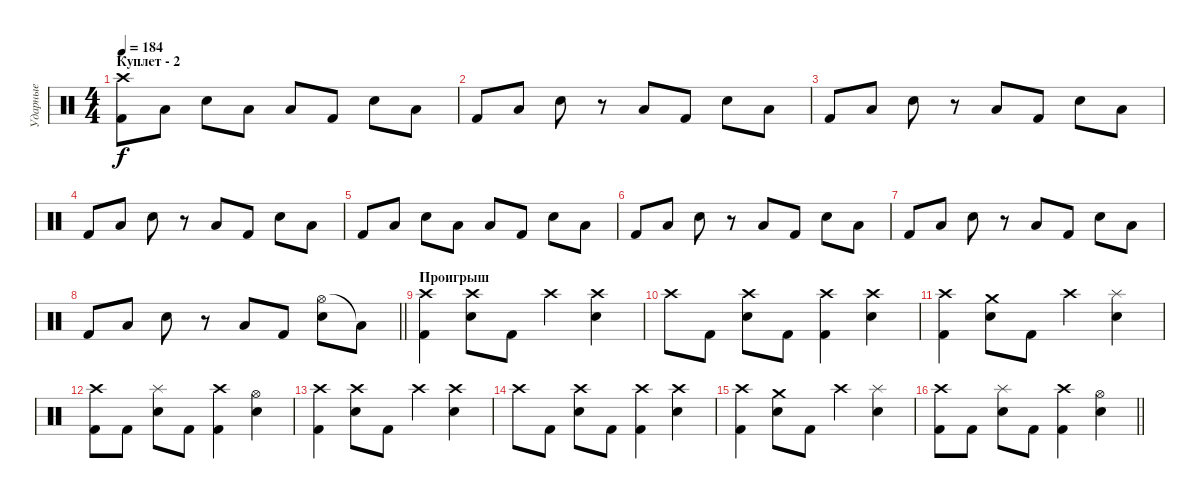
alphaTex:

\track ("Ударные" "Ударные") {instrument percussion}
\staff {score}
\articulation defaults
\ts (4 4)
\section ("" "Куплет - 2")
\tempo 184
\clef neutral
\ks c
("Crash high (hit)" "Kick (hit) 2").8{dy f} "Low Tom (hit)".8 "Snare (hit) 2".8 "Low Floor Tom (hit)".8 "Low Tom (hit)".8 "Kick (hit) 2".8 "Snare (hit) 2".8 "Low Tom (hit)".8 |
"Kick (hit) 2".8 "Low Tom (hit)".8 "Snare (hit) 2".8 r.8 "Low Tom (hit)".8 "Kick (hit) 2".8 "Snare (hit) 2".8 "Low Tom (hit)".8 |
"Kick (hit) 2".8 "Low Tom (hit)".8 "Snare (hit) 2".8 r.8 "Low Tom (hit)".8 "Kick (hit) 2".8 "Snare (hit) 2".8 "Low Tom (hit)".8 |
"Kick (hit) 2".8 "Low Tom (hit)".8 "Snare (hit) 2".8 r.8 "Low Tom (hit)".8 "Kick (hit) 2".8 "Snare (hit) 2".8 "Low Tom (hit)".8 |
"Kick (hit) 2".8 "Low Tom (hit)".8 "Snare (hit) 2".8 "Low Floor Tom (hit)".8 "Low Tom (hit)".8 "Kick (hit) 2".8 "Snare (hit) 2".8 "Low Tom (hit)".8 |
"Kick (hit) 2".8 "Low Tom (hit)".8 "Snare (hit) 2".8 r.8 "Low Tom (hit)".8 "Kick (hit) 2".8 "Snare (hit) 2".8 "Low Tom (hit)".8 |
"Kick (hit) 2".8 "Low Tom (hit)".8 "Snare (hit) 2".8 r.8 "Low Tom (hit)".8 "Kick (hit) 2".8 "Snare (hit) 2".8 "Low Tom (hit)".8 |
\barLineRight lightlight "Kick (hit) 2".8 "Low Tom (hit)".8 "Snare (hit) 2".8
r.8 "Low Tom (hit)".8 "Kick (hit) 2".8 ("Hi-Hat (open)" "Snare (hit) 2").8 "Low Tom (hit)"{t}.8 |
\section ("" "Проигрыш ")
("Crash high (hit)" "Kick (hit) 2").4 ("Crash high (hit)" "Snare (hit) 2").8 "Kick (hit) 2".8 "Crash high (hit)".4 ("Crash high (hit)" "Snare (hit) 2").4 |
"Crash high (hit)".8 "Kick (hit) 2".8 ("Crash high (hit)" "Snare (hit) 2").8 "Kick (hit) 2".8 ("Crash high (hit)" "Kick (hit) 2").4 ("Crash high (hit)" "Snare (hit) 2").4 |
("Crash high (hit)" "Kick (hit) 2").4 ("Crash medium (hit)" "Snare (hit) 2").8 "Kick (hit) 2".8 "Crash high (hit)".4 ("Splash (hit)" "Snare (hit) 2").4 |
("Crash high (hit)" "Kick (hit) 2").8 "Kick (hit) 2".8 ("Splash (hit)" "Snare (hit) 2").8 "Kick (hit) 2".8 ("Crash high (hit)" "Kick (hit) 2").4 ("Hi-Hat (open)" "Snare (hit) 2").4 |
("Crash high (hit)" "Kick (hit) 2").4 ("Crash high (hit)" "Snare (hit) 2").8 "Kick (hit) 2".8 "Crash high (hit)".4 ("Crash high (hit)" "Snare (hit) 2").4 |
"Crash high (hit)".8 "Kick (hit) 2".8 ("Crash high (hit)" "Snare (hit) 2").8 "Kick (hit) 2".8 ("Crash high (hit)" "Kick (hit) 2").4 ("Crash high (hit)" "Snare (hit) 2").4 |
("Crash high (hit)" "Kick (hit) 2").4 ("Crash medium (hit)" "Snare (hit) 2").8 "Kick (hit) 2".8 "Crash high (hit)".4 ("Splash (hit)" "Snare (hit) 2").4 |
\barLineRight lightlight
("Crash high (hit)" "Kick (hit) 2").8 "Kick (hit) 2".8 ("Splash (hit)" "Snare (hit) 2").8 "Kick (hit) 2".8 ("Crash high (hit)" "Kick (hit) 2").4 ("Hi-Hat (open)" "Snare (hit) 2").4
